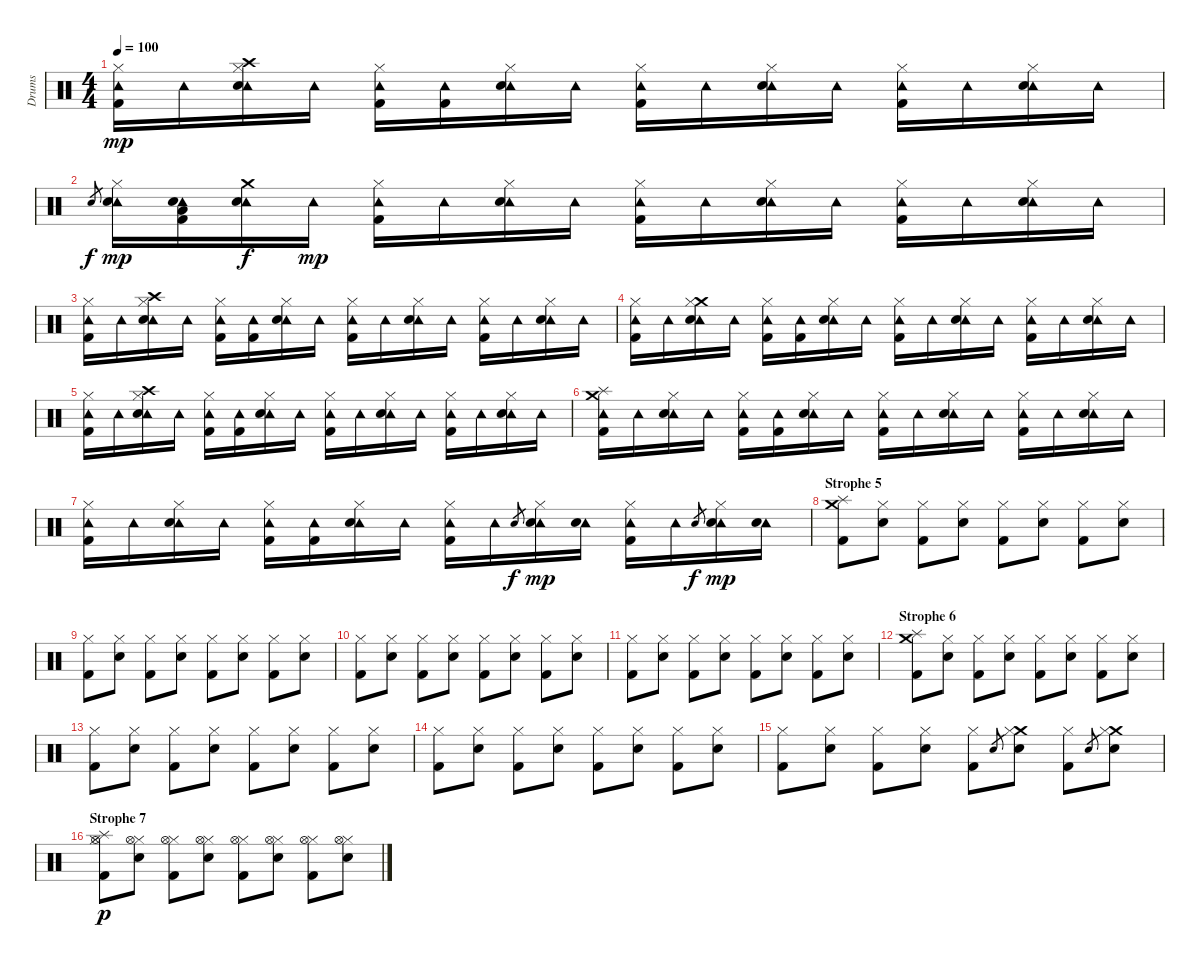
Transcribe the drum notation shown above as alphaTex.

\track ("Drums" "Drums") {instrument percussion}
\staff {score}
\articulation defaults
\ts (4 4)
\tempo 100
\clef neutral
\ks c
("Hi-Hat (closed)" "Tambourine (hit)" "Kick (hit) 2").16{dy mp} "Tambourine (hit)".16 ("Crash high (hit)" "Hi-Hat (closed)" "Tambourine (hit)" "Electric Snare (hit)").16 "Tambourine (hit)".16 ("Hi-Hat (closed)" "Tambourine (hit)" "Kick (hit) 2").16 ("Tambourine (hit)" "Kick (hit) 2").16 ("Hi-Hat (closed)" "Tambourine (hit)" "Electric Snare (hit)").16 "Tambourine (hit)".16 ("Hi-Hat (closed)" "Tambourine (hit)" "Kick (hit) 2").16 "Tambourine (hit)".16 ("Hi-Hat (closed)" "Tambourine (hit)" "Electric Snare (hit)").16 "Tambourine (hit)".16 ("Hi-Hat (closed)" "Tambourine (hit)" "Kick (hit) 2").16 "Tambourine (hit)".16 ("Hi-Hat (closed)" "Tambourine (hit)" "Electric Snare (hit)").16 "Tambourine (hit)".16 |
"Electric Snare (hit)".8{gr dy f} ("Hi-Hat (closed)" "Tambourine (hit)" "Electric Snare (hit)").16{dy mp} ("Tambourine (hit)" "Electric Snare (hit)" "Low Floor Tom (hit)" "Kick (hit) 2").16 ("Crash medium (hit)" "Tambourine (hit)" "Electric Snare (hit)").16{dy f} "Tambourine (hit)".16{dy mp} ("Hi-Hat (closed)" "Tambourine (hit)" "Kick (hit) 2").16 "Tambourine (hit)".16 ("Hi-Hat (closed)" "Tambourine (hit)" "Electric Snare (hit)").16 "Tambourine (hit)".16 ("Hi-Hat (closed)" "Tambourine (hit)" "Kick (hit) 2").16 "Tambourine (hit)".16 ("Hi-Hat (closed)" "Tambourine (hit)" "Electric Snare (hit)").16 "Tambourine (hit)".16 ("Hi-Hat (closed)" "Tambourine (hit)" "Kick (hit) 2").16 "Tambourine (hit)".16 ("Hi-Hat (closed)" "Tambourine (hit)" "Electric Snare (hit)").16 "Tambourine (hit)".16 |
("Hi-Hat (closed)" "Tambourine (hit)" "Kick (hit) 2").16 "Tambourine (hit)".16 ("Crash high (hit)" "Hi-Hat (closed)" "Tambourine (hit)" "Electric Snare (hit)").16 "Tambourine (hit)".16 ("Hi-Hat (closed)" "Tambourine (hit)" "Kick (hit) 2").16 ("Tambourine (hit)" "Kick (hit) 2").16 ("Hi-Hat (closed)" "Tambourine (hit)" "Electric Snare (hit)").16 "Tambourine (hit)".16 ("Hi-Hat (closed)" "Tambourine (hit)" "Kick (hit) 2").16 "Tambourine (hit)".16 ("Hi-Hat (closed)" "Tambourine (hit)" "Electric Snare (hit)").16 "Tambourine (hit)".16 ("Hi-Hat (closed)" "Tambourine (hit)" "Kick (hit) 2").16 "Tambourine (hit)".16 ("Hi-Hat (closed)" "Tambourine (hit)" "Electric Snare (hit)").16 "Tambourine (hit)".16 |
("Hi-Hat (closed)" "Tambourine (hit)" "Kick (hit) 2").16 "Tambourine (hit)".16 ("Crash medium (hit)" "Hi-Hat (closed)" "Tambourine (hit)" "Electric Snare (hit)").16 "Tambourine (hit)".16 ("Hi-Hat (closed)" "Tambourine (hit)" "Kick (hit) 2").16 ("Tambourine (hit)" "Kick (hit) 2").16 ("Hi-Hat (closed)" "Tambourine (hit)" "Electric Snare (hit)").16 "Tambourine (hit)".16 ("Hi-Hat (closed)" "Tambourine (hit)" "Kick (hit) 2").16 "Tambourine (hit)".16 ("Hi-Hat (closed)" "Tambourine (hit)" "Electric Snare (hit)").16 "Tambourine (hit)".16 ("Hi-Hat (closed)" "Tambourine (hit)" "Kick (hit) 2").16 "Tambourine (hit)".16 ("Hi-Hat (closed)" "Tambourine (hit)" "Electric Snare (hit)").16 "Tambourine (hit)".16 |
("Hi-Hat (closed)" "Tambourine (hit)" "Kick (hit) 2").16 "Tambourine (hit)".16 ("Crash high (hit)" "Hi-Hat (closed)" "Tambourine (hit)" "Electric Snare (hit)").16 "Tambourine (hit)".16 ("Hi-Hat (closed)" "Tambourine (hit)" "Kick (hit) 2").16 ("Tambourine (hit)" "Kick (hit) 2").16 ("Hi-Hat (closed)" "Tambourine (hit)" "Electric Snare (hit)").16 "Tambourine (hit)".16 ("Hi-Hat (closed)" "Tambourine (hit)" "Kick (hit) 2").16 "Tambourine (hit)".16 ("Hi-Hat (closed)" "Tambourine (hit)" "Electric Snare (hit)").16 "Tambourine (hit)".16 ("Hi-Hat (closed)" "Tambourine (hit)" "Kick (hit) 2").16 "Tambourine (hit)".16 ("Hi-Hat (closed)" "Tambourine (hit)" "Electric Snare (hit)").16 "Tambourine (hit)".16 |
("Splash (hit)" "Crash medium (hit)" "Tambourine (hit)" "Kick (hit) 2").16 "Tambourine (hit)".16 ("Hi-Hat (closed)" "Tambourine (hit)" "Electric Snare (hit)").16 "Tambourine (hit)".16 ("Hi-Hat (closed)" "Tambourine (hit)" "Kick (hit) 2").16 ("Tambourine (hit)" "Kick (hit) 2").16 ("Hi-Hat (closed)" "Tambourine (hit)" "Electric Snare (hit)").16 "Tambourine (hit)".16 ("Hi-Hat (closed)" "Tambourine (hit)" "Kick (hit) 2").16 "Tambourine (hit)".16 ("Hi-Hat (closed)" "Tambourine (hit)" "Electric Snare (hit)").16 "Tambourine (hit)".16 ("Hi-Hat (closed)" "Tambourine (hit)" "Kick (hit) 2").16 "Tambourine (hit)".16 ("Hi-Hat (closed)" "Tambourine (hit)" "Electric Snare (hit)").16 "Tambourine (hit)".16 |
("Hi-Hat (closed)" "Tambourine (hit)" "Kick (hit) 2").16 "Tambourine (hit)".16 ("Hi-Hat (closed)" "Tambourine (hit)" "Electric Snare (hit)").16 "Tambourine (hit)".16 ("Hi-Hat (closed)" "Tambourine (hit)" "Kick (hit) 2").16 ("Tambourine (hit)" "Kick (hit) 2").16 ("Hi-Hat (closed)" "Tambourine (hit)" "Electric Snare (hit)").16 "Tambourine (hit)".16 ("Hi-Hat (closed)" "Tambourine (hit)" "Kick (hit) 2").16 "Tambourine (hit)".16 "Electric Snare (hit)".8{gr dy f} ("Hi-Hat (closed)" "Tambourine (hit)" "Electric Snare (hit)").16{dy mp} ("Tambourine (hit)" "Electric Snare (hit)").16 ("Hi-Hat (closed)" "Tambourine (hit)" "Kick (hit) 2").16 "Tambourine (hit)".16 "Electric Snare (hit)".8{gr dy f} ("Hi-Hat (closed)" "Tambourine (hit)" "Electric Snare (hit)").16{dy mp} ("Tambourine (hit)" "Electric Snare (hit)").16 |
\section ("" "Strophe 5")
("Splash (hit)" "Crash medium (hit)" "Kick (hit) 2").8 ("Hi-Hat (closed)" "Electric Snare (hit)").8 ("Hi-Hat (closed)" "Kick (hit) 2").8 ("Hi-Hat (closed)" "Electric Snare (hit)").8 ("Hi-Hat (closed)" "Kick (hit) 2").8 ("Hi-Hat (closed)" "Electric Snare (hit)").8 ("Hi-Hat (closed)" "Kick (hit) 2").8 ("Hi-Hat (closed)" "Electric Snare (hit)").8 |
("Hi-Hat (closed)" "Kick (hit) 2").8 ("Hi-Hat (closed)" "Electric Snare (hit)").8 ("Hi-Hat (closed)" "Kick (hit) 2").8 ("Hi-Hat (closed)" "Electric Snare (hit)").8 ("Hi-Hat (closed)" "Kick (hit) 2").8 ("Hi-Hat (closed)" "Electric Snare (hit)").8 ("Hi-Hat (closed)" "Kick (hit) 2").8 ("Hi-Hat (closed)" "Electric Snare (hit)").8 |
("Hi-Hat (closed)" "Kick (hit) 2").8 ("Hi-Hat (closed)" "Electric Snare (hit)").8 ("Hi-Hat (closed)" "Kick (hit) 2").8 ("Hi-Hat (closed)" "Electric Snare (hit)").8 ("Hi-Hat (closed)" "Kick (hit) 2").8 ("Hi-Hat (closed)" "Electric Snare (hit)").8 ("Hi-Hat (closed)" "Kick (hit) 2").8 ("Hi-Hat (closed)" "Electric Snare (hit)").8 |
("Hi-Hat (closed)" "Kick (hit) 2").8 ("Hi-Hat (closed)" "Electric Snare (hit)").8 ("Hi-Hat (closed)" "Kick (hit) 2").8 ("Hi-Hat (closed)" "Electric Snare (hit)").8 ("Hi-Hat (closed)" "Kick (hit) 2").8 ("Hi-Hat (closed)" "Electric Snare (hit)").8 ("Hi-Hat (closed)" "Kick (hit) 2").8 ("Hi-Hat (closed)" "Electric Snare (hit)").8 |
\section ("" "Strophe 6")
("Splash (hit)" "Crash medium (hit)" "Kick (hit) 2").8 ("Hi-Hat (closed)" "Electric Snare (hit)").8 ("Hi-Hat (closed)" "Kick (hit) 2").8 ("Hi-Hat (closed)" "Electric Snare (hit)").8 ("Hi-Hat (closed)" "Kick (hit) 2").8 ("Hi-Hat (closed)" "Electric Snare (hit)").8 ("Hi-Hat (closed)" "Kick (hit) 2").8 ("Hi-Hat (closed)" "Electric Snare (hit)").8 |
("Hi-Hat (closed)" "Kick (hit) 2").8 ("Hi-Hat (closed)" "Electric Snare (hit)").8 ("Hi-Hat (closed)" "Kick (hit) 2").8 ("Hi-Hat (closed)" "Electric Snare (hit)").8 ("Hi-Hat (closed)" "Kick (hit) 2").8 ("Hi-Hat (closed)" "Electric Snare (hit)").8 ("Hi-Hat (closed)" "Kick (hit) 2").8 ("Hi-Hat (closed)" "Electric Snare (hit)").8 |
("Hi-Hat (closed)" "Kick (hit) 2").8 ("Hi-Hat (closed)" "Electric Snare (hit)").8 ("Hi-Hat (closed)" "Kick (hit) 2").8 ("Hi-Hat (closed)" "Electric Snare (hit)").8 ("Hi-Hat (closed)" "Kick (hit) 2").8 ("Hi-Hat (closed)" "Electric Snare (hit)").8 ("Hi-Hat (closed)" "Kick (hit) 2").8 ("Hi-Hat (closed)" "Electric Snare (hit)").8 |
("Hi-Hat (closed)" "Kick (hit) 2").8 ("Hi-Hat (closed)" "Electric Snare (hit)").8 ("Hi-Hat (closed)" "Kick (hit) 2").8 ("Hi-Hat (closed)" "Electric Snare (hit)").8 ("Hi-Hat (closed)" "Kick (hit) 2").8 "Electric Snare (hit)".8{gr} ("Crash medium (hit)" "Hi-Hat (closed)" "Electric Snare (hit)").8 ("Hi-Hat (closed)" "Kick (hit) 2").8 "Electric Snare (hit)".8{gr} ("Crash medium (hit)" "Hi-Hat (closed)" "Electric Snare (hit)").8 |
\section ("" "Strophe 7")
("Splash (hit)" "Hi-Hat (closed)" "Hi-Hat (open)" "Kick (hit) 2").8{dy p} ("Hi-Hat (closed)" "Hi-Hat (open)" "Electric Snare (hit)").8 ("Hi-Hat (closed)" "Hi-Hat (open)" "Kick (hit) 2").8 ("Hi-Hat (closed)" "Hi-Hat (open)" "Electric Snare (hit)").8 ("Hi-Hat (closed)" "Hi-Hat (open)" "Kick (hit) 2").8 ("Hi-Hat (closed)" "Hi-Hat (open)" "Electric Snare (hit)").8 ("Hi-Hat (closed)" "Hi-Hat (open)" "Kick (hit) 2").8 ("Hi-Hat (closed)" "Hi-Hat (open)" "Electric Snare (hit)").8
